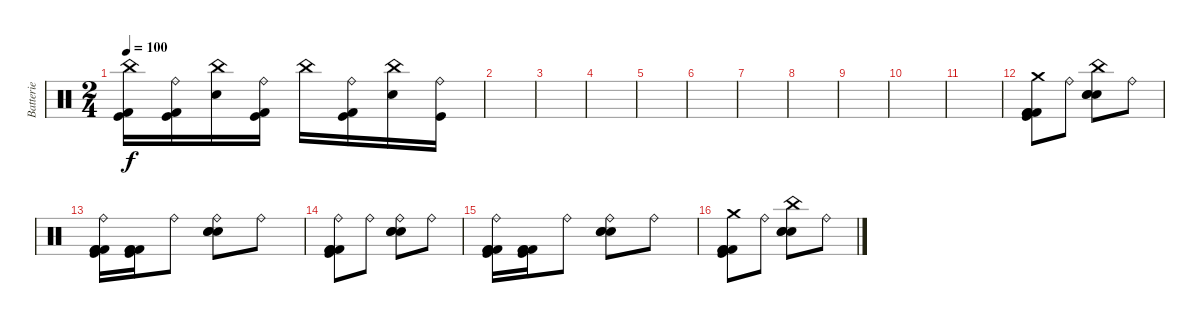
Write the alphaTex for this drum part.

\track ("Batterie" "Batterie") {instrument percussion}
\staff {score}
\articulation defaults
\ts (2 4)
\tempo 100
\clef neutral
\ks c
("China (hit)" "Kick (hit)" "Kick (hit) 2").16{dy f} ("Ride (bell)" "Kick (hit) 2" "Kick (hit)").16 ("China (hit)" "Electric Snare (hit)").16 ("Ride (bell)" "Kick (hit)" "Kick (hit) 2").16 "China (hit)".16 ("Ride (bell)" "Kick (hit)" "Kick (hit) 2").16 ("China (hit)" "Electric Snare (hit)").16 ("Ride (bell)" "Kick (hit)").16 |
|
|
|
|
|
|
|
|
|
|
("Crash medium (hit)" "Kick (hit) 2" "Kick (hit) 2" "Kick (hit) 2" "Kick (hit)").8 "Ride (bell)".8 ("China (hit)" "Snare (hit) 2" "Electric Snare (hit)" "Electric Snare (hit)").8 "Ride (bell)".8 |
("Ride (bell)" "Kick (hit) 2" "Kick (hit) 2" "Kick (hit) 2" "Kick (hit)").16 ("Kick (hit) 2" "Kick (hit) 2" "Kick (hit) 2" "Kick (hit)").16 "Ride (bell)".8 ("Ride (bell)" "Snare (hit) 2" "Electric Snare (hit)" "Electric Snare (hit)").8 "Ride (bell)".8 |
("Ride (bell)" "Kick (hit) 2" "Kick (hit) 2" "Kick (hit) 2" "Kick (hit)").8 "Ride (bell)".8 ("Ride (bell)" "Snare (hit) 2" "Electric Snare (hit)" "Electric Snare (hit)").8 "Ride (bell)".8 |
("Ride (bell)" "Kick (hit) 2" "Kick (hit) 2" "Kick (hit) 2" "Kick (hit)").16 ("Kick (hit) 2" "Kick (hit) 2" "Kick (hit) 2" "Kick (hit)").16 "Ride (bell)".8 ("Ride (bell)" "Snare (hit) 2" "Electric Snare (hit)" "Electric Snare (hit)").8 "Ride (bell)".8 |
("Crash medium (hit)" "Kick (hit) 2" "Kick (hit) 2" "Kick (hit) 2" "Kick (hit)").8 "Ride (bell)".8 ("China (hit)" "Snare (hit) 2" "Electric Snare (hit)" "Electric Snare (hit)").8 "Ride (bell)".8
